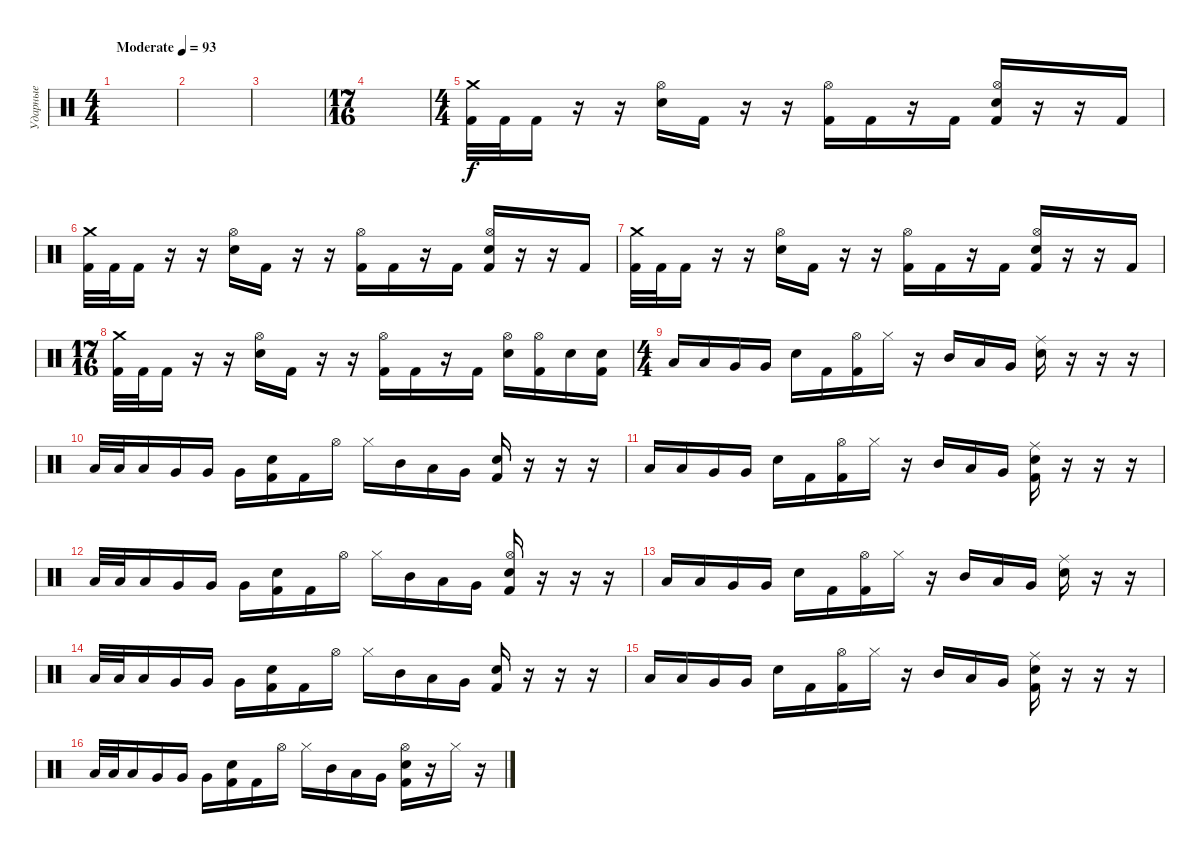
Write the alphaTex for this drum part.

\track ("Ударные" "Ударные") {instrument percussion}
\staff {score}
\articulation defaults
\ts (4 4)
\tempo (93 "Moderate")
\clef neutral
\ks c
|
|
|
\ts (17 16)
|
\ts (4 4)
("Crash medium (hit)" "Kick (hit) 2").32 "Kick (hit) 2".32 "Kick (hit) 2".16 r.16 r.16 ("Hi-Hat (open)" "Electric Snare (hit)").16 "Kick (hit) 2".16 r.16 r.16 ("Hi-Hat (open)" "Kick (hit) 2").16 "Kick (hit) 2".16 r.16 "Kick (hit) 2".16 ("Hi-Hat (open)" "Electric Snare (hit)" "Kick (hit) 2").16 r.16 r.16 "Kick (hit) 2".16 |
("Crash medium (hit)" "Kick (hit) 2").32 "Kick (hit) 2".32 "Kick (hit) 2".16 r.16 r.16 ("Hi-Hat (open)" "Electric Snare (hit)").16 "Kick (hit) 2".16 r.16 r.16 ("Hi-Hat (open)" "Kick (hit) 2").16 "Kick (hit) 2".16 r.16 "Kick (hit) 2".16 ("Hi-Hat (open)" "Electric Snare (hit)" "Kick (hit) 2").16 r.16 r.16 "Kick (hit) 2".16 |
("Crash medium (hit)" "Kick (hit) 2").32 "Kick (hit) 2".32 "Kick (hit) 2".16 r.16 r.16 ("Hi-Hat (open)" "Electric Snare (hit)").16 "Kick (hit) 2".16 r.16 r.16 ("Hi-Hat (open)" "Kick (hit) 2").16 "Kick (hit) 2".16 r.16 "Kick (hit) 2".16 ("Hi-Hat (open)" "Electric Snare (hit)" "Kick (hit) 2").16 r.16 r.16 "Kick (hit) 2".16 |
\ts (17 16)
("Crash medium (hit)" "Kick (hit) 2").32 "Kick (hit) 2".32 "Kick (hit) 2".16 r.16 r.16 ("Hi-Hat (open)" "Electric Snare (hit)").16 "Kick (hit) 2".16 r.16 r.16 ("Hi-Hat (open)" "Kick (hit) 2").16 "Kick (hit) 2".16 r.16 "Kick (hit) 2".16 ("Hi-Hat (open)" "Electric Snare (hit)").16 ("Hi-Hat (open)" "Kick (hit) 2").16 "Electric Snare (hit)".16 ("Electric Snare (hit)" "Kick (hit) 2").16 |
\ts (4 4)
"Low Tom (hit)".16 "Low Tom (hit)".16 "Very Low Tom (hit)".16 "Very Low Tom (hit)".16 "Electric Snare (hit)".16 "Kick (hit) 2".16 ("Hi-Hat (open)" "Kick (hit) 2").16 "Hi-Hat (closed)".16 r.16 "Mid Tom (hit)".16 "Low Tom (hit)".16 "Very Low Tom (hit)".16 ("Ride (middle)" "Electric Snare (hit)").16 r.16 r.16 r.16 |
"Low Tom (hit)".32 "Low Tom (hit)".32 "Low Tom (hit)".16 "Very Low Tom (hit)".16 "Very Low Tom (hit)".16 "Very Low Tom (hit)".16 ("Electric Snare (hit)" "Kick (hit) 2").16 "Kick (hit) 2".16 "Hi-Hat (open)".16 "Hi-Hat (closed)".16 "Mid Tom (hit)".16 "Low Tom (hit)".16 "Very Low Tom (hit)".16 ("Electric Snare (hit)" "Kick (hit) 2").16 r.16 r.16 r.16 |
"Low Tom (hit)".16 "Low Tom (hit)".16 "Very Low Tom (hit)".16 "Very Low Tom (hit)".16 "Electric Snare (hit)".16 "Kick (hit) 2".16 ("Hi-Hat (open)" "Kick (hit) 2").16 "Hi-Hat (closed)".16 r.16 "Mid Tom (hit)".16 "Low Tom (hit)".16 "Very Low Tom (hit)".16 ("Ride (middle)" "Electric Snare (hit)" "Kick (hit) 2").16 r.16 r.16 r.16 |
"Low Tom (hit)".32 "Low Tom (hit)".32 "Low Tom (hit)".16 "Very Low Tom (hit)".16 "Very Low Tom (hit)".16 "Very Low Tom (hit)".16 ("Electric Snare (hit)" "Kick (hit) 2").16 "Kick (hit) 2".16 "Hi-Hat (open)".16 "Hi-Hat (closed)".16 "Mid Tom (hit)".16 "Low Tom (hit)".16 "Very Low Tom (hit)".16 ("Hi-Hat (open)" "Electric Snare (hit)" "Kick (hit) 2").16 r.16 r.16 r.16 |
"Low Tom (hit)".16 "Low Tom (hit)".16 "Very Low Tom (hit)".16 "Very Low Tom (hit)".16 "Electric Snare (hit)".16 "Kick (hit) 2".16 ("Hi-Hat (open)" "Kick (hit) 2").16 "Hi-Hat (closed)".16 r.16 "Mid Tom (hit)".16 "Low Tom (hit)".16 "Very Low Tom (hit)".16 ("Ride (middle)" "Electric Snare (hit)").16 r.16 r.16 |
"Low Tom (hit)".32 "Low Tom (hit)".32 "Low Tom (hit)".16 "Very Low Tom (hit)".16 "Very Low Tom (hit)".16 "Very Low Tom (hit)".16 ("Electric Snare (hit)" "Kick (hit) 2").16 "Kick (hit) 2".16 "Hi-Hat (open)".16 "Hi-Hat (closed)".16 "Mid Tom (hit)".16 "Low Tom (hit)".16 "Very Low Tom (hit)".16 ("Electric Snare (hit)" "Kick (hit) 2").16 r.16 r.16 r.16 |
"Low Tom (hit)".16 "Low Tom (hit)".16 "Very Low Tom (hit)".16 "Very Low Tom (hit)".16 "Electric Snare (hit)".16 "Kick (hit) 2".16 ("Hi-Hat (open)" "Kick (hit) 2").16 "Hi-Hat (closed)".16 r.16 "Mid Tom (hit)".16 "Low Tom (hit)".16 "Very Low Tom (hit)".16 ("Ride (middle)" "Electric Snare (hit)" "Kick (hit) 2").16 r.16 r.16 r.16 |
"Low Tom (hit)".32 "Low Tom (hit)".32 "Low Tom (hit)".16 "Very Low Tom (hit)".16 "Very Low Tom (hit)".16 "Very Low Tom (hit)".16 ("Electric Snare (hit)" "Kick (hit) 2").16 "Kick (hit) 2".16 "Hi-Hat (open)".16 "Hi-Hat (closed)".16 "Mid Tom (hit)".16 "Low Tom (hit)".16 "Very Low Tom (hit)".16 ("Hi-Hat (open)" "Electric Snare (hit)" "Kick (hit) 2").16 r.16 "Hi-Hat (closed)".16 r.16
